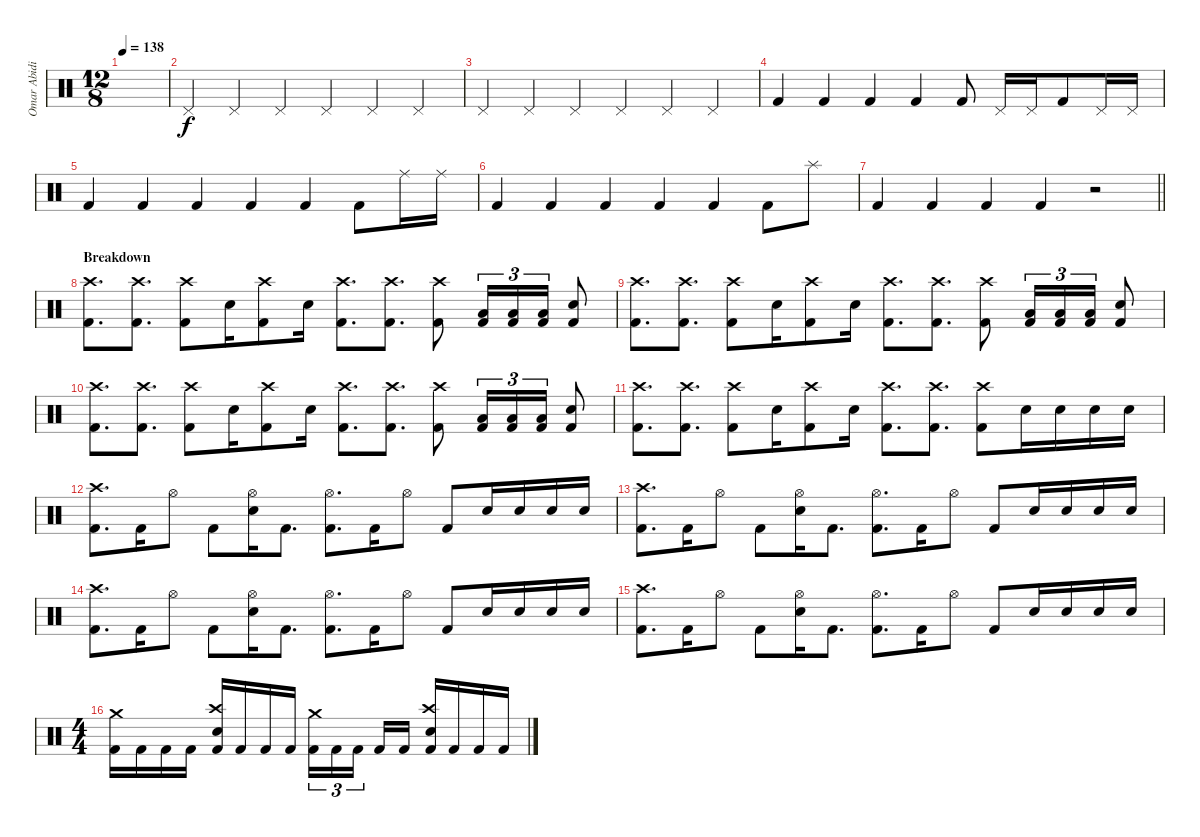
\track ("Omar Abidi" "Omar Abidi") {instrument percussion}
\staff {score}
\articulation defaults
\ts (12 8)
\tempo 138
\clef neutral
\ks c
|
"Pedal Hi-Hat (hit)".4 "Pedal Hi-Hat (hit)".4 "Pedal Hi-Hat (hit)".4 "Pedal Hi-Hat (hit)".4 "Pedal Hi-Hat (hit)".4 "Pedal Hi-Hat (hit)".4 |
"Pedal Hi-Hat (hit)".4 "Pedal Hi-Hat (hit)".4 "Pedal Hi-Hat (hit)".4 "Pedal Hi-Hat (hit)".4 "Pedal Hi-Hat (hit)".4 "Pedal Hi-Hat (hit)".4 |
"Kick (hit) 2".4 "Kick (hit) 2".4 "Kick (hit) 2".4 "Kick (hit) 2".4 "Kick (hit) 2".8 "Pedal Hi-Hat (hit)".16 "Pedal Hi-Hat (hit)".16 "Kick (hit) 2".8 "Pedal Hi-Hat (hit)".16 "Pedal Hi-Hat (hit)".16 |
"Kick (hit) 2".4 "Kick (hit) 2".4 "Kick (hit) 2".4 "Kick (hit) 2".4 "Kick (hit) 2".4 "Kick (hit) 2".8 "Ride (middle)".16 "Ride (middle)".16 |
"Kick (hit) 2".4 "Kick (hit) 2".4 "Kick (hit) 2".4 "Kick (hit) 2".4 "Kick (hit) 2".4 "Kick (hit) 2".8 "Splash (hit)".8 |
\barLineRight lightlight "Kick (hit) 2".4 "Kick (hit) 2".4 "Kick (hit) 2".4 "Kick (hit) 2".4
r.2 |
\section ("" "Breakdown")
("Crash high (hit)" "Kick (hit) 2").8{d} ("Crash high (hit)" "Kick (hit) 2").8{d} ("Crash high (hit)" "Kick (hit) 2").8 "Electric Snare (hit)".16 ("Crash high (hit)" "Kick (hit) 2").8 "Electric Snare (hit)".16 ("Crash high (hit)" "Kick (hit) 2").8{d} ("Crash high (hit)" "Kick (hit) 2").8{d} ("Crash high (hit)" "Kick (hit) 2").8 ("Low Floor Tom (hit)" "Kick (hit) 2").16{tu (3 2)} ("Low Floor Tom (hit)" "Kick (hit) 2").16{tu (3 2)} ("Low Floor Tom (hit)" "Kick (hit) 2").16{tu (3 2)} ("Electric Snare (hit)" "Kick (hit) 2").8 |
("Crash high (hit)" "Kick (hit) 2").8{d} ("Crash high (hit)" "Kick (hit) 2").8{d} ("Crash high (hit)" "Kick (hit) 2").8 "Electric Snare (hit)".16 ("Crash high (hit)" "Kick (hit) 2").8 "Electric Snare (hit)".16 ("Crash high (hit)" "Kick (hit) 2").8{d} ("Crash high (hit)" "Kick (hit) 2").8{d} ("Crash high (hit)" "Kick (hit) 2").8 ("Low Floor Tom (hit)" "Kick (hit) 2").16{tu (3 2)} ("Low Floor Tom (hit)" "Kick (hit) 2").16{tu (3 2)} ("Low Floor Tom (hit)" "Kick (hit) 2").16{tu (3 2)} ("Electric Snare (hit)" "Kick (hit) 2").8 |
("Crash high (hit)" "Kick (hit) 2").8{d} ("Crash high (hit)" "Kick (hit) 2").8{d} ("Crash high (hit)" "Kick (hit) 2").8 "Electric Snare (hit)".16 ("Crash high (hit)" "Kick (hit) 2").8 "Electric Snare (hit)".16 ("Crash high (hit)" "Kick (hit) 2").8{d} ("Crash high (hit)" "Kick (hit) 2").8{d} ("Crash high (hit)" "Kick (hit) 2").8 ("Low Floor Tom (hit)" "Kick (hit) 2").16{tu (3 2)} ("Low Floor Tom (hit)" "Kick (hit) 2").16{tu (3 2)} ("Low Floor Tom (hit)" "Kick (hit) 2").16{tu (3 2)} ("Electric Snare (hit)" "Kick (hit) 2").8 |
("Crash high (hit)" "Kick (hit) 2").8{d} ("Crash high (hit)" "Kick (hit) 2").8{d} ("Crash high (hit)" "Kick (hit) 2").8 "Electric Snare (hit)".16 ("Crash high (hit)" "Kick (hit) 2").8 "Electric Snare (hit)".16 ("Crash high (hit)" "Kick (hit) 2").8{d} ("Crash high (hit)" "Kick (hit) 2").8{d} ("Crash high (hit)" "Kick (hit) 2").8 "Electric Snare (hit)".16 "Electric Snare (hit)".16 "Electric Snare (hit)".16 "Electric Snare (hit)".16 |
("Crash high (hit)" "Kick (hit) 2").8{d} "Kick (hit) 2".16 "Hi-Hat (open)".8 "Kick (hit) 2".8 ("Hi-Hat (open)" "Electric Snare (hit)").16 "Kick (hit) 2".8{d} ("Hi-Hat (open)" "Kick (hit) 2").8{d} "Kick (hit) 2".16 "Hi-Hat (open)".8 "Kick (hit) 2".8 "Electric Snare (hit)".16 "Electric Snare (hit)".16 "Electric Snare (hit)".16 "Electric Snare (hit)".16 |
("Crash high (hit)" "Kick (hit) 2").8{d} "Kick (hit) 2".16 "Hi-Hat (open)".8 "Kick (hit) 2".8 ("Hi-Hat (open)" "Electric Snare (hit)").16 "Kick (hit) 2".8{d} ("Hi-Hat (open)" "Kick (hit) 2").8{d} "Kick (hit) 2".16 "Hi-Hat (open)".8 "Kick (hit) 2".8 "Electric Snare (hit)".16 "Electric Snare (hit)".16 "Electric Snare (hit)".16 "Electric Snare (hit)".16 |
("Crash high (hit)" "Kick (hit) 2").8{d} "Kick (hit) 2".16 "Hi-Hat (open)".8 "Kick (hit) 2".8 ("Hi-Hat (open)" "Electric Snare (hit)").16 "Kick (hit) 2".8{d} ("Hi-Hat (open)" "Kick (hit) 2").8{d} "Kick (hit) 2".16 "Hi-Hat (open)".8 "Kick (hit) 2".8 "Electric Snare (hit)".16 "Electric Snare (hit)".16 "Electric Snare (hit)".16 "Electric Snare (hit)".16 |
("Crash high (hit)" "Kick (hit) 2").8{d} "Kick (hit) 2".16 "Hi-Hat (open)".8 "Kick (hit) 2".8 ("Hi-Hat (open)" "Electric Snare (hit)").16 "Kick (hit) 2".8{d} ("Hi-Hat (open)" "Kick (hit) 2").8{d} "Kick (hit) 2".16 "Hi-Hat (open)".8 "Kick (hit) 2".8 "Electric Snare (hit)".16 "Electric Snare (hit)".16 "Electric Snare (hit)".16 "Electric Snare (hit)".16 |
\ts (4 4)
("Crash medium (hit)" "Kick (hit) 2").16 "Kick (hit) 2".16 "Kick (hit) 2".16 "Kick (hit) 2".16 ("Crash high (hit)" "Electric Snare (hit)" "Kick (hit) 2").16 "Kick (hit) 2".16 "Kick (hit) 2".16 "Kick (hit) 2".16 ("Crash medium (hit)" "Kick (hit) 2").16{tu (3 2)} "Kick (hit) 2".16{tu (3 2)} "Kick (hit) 2".16{tu (3 2) beam splitsecondary} "Kick (hit) 2".16 "Kick (hit) 2".16 ("Crash high (hit)" "Electric Snare (hit)" "Kick (hit) 2").16 "Kick (hit) 2".16 "Kick (hit) 2".16 "Kick (hit) 2".16
